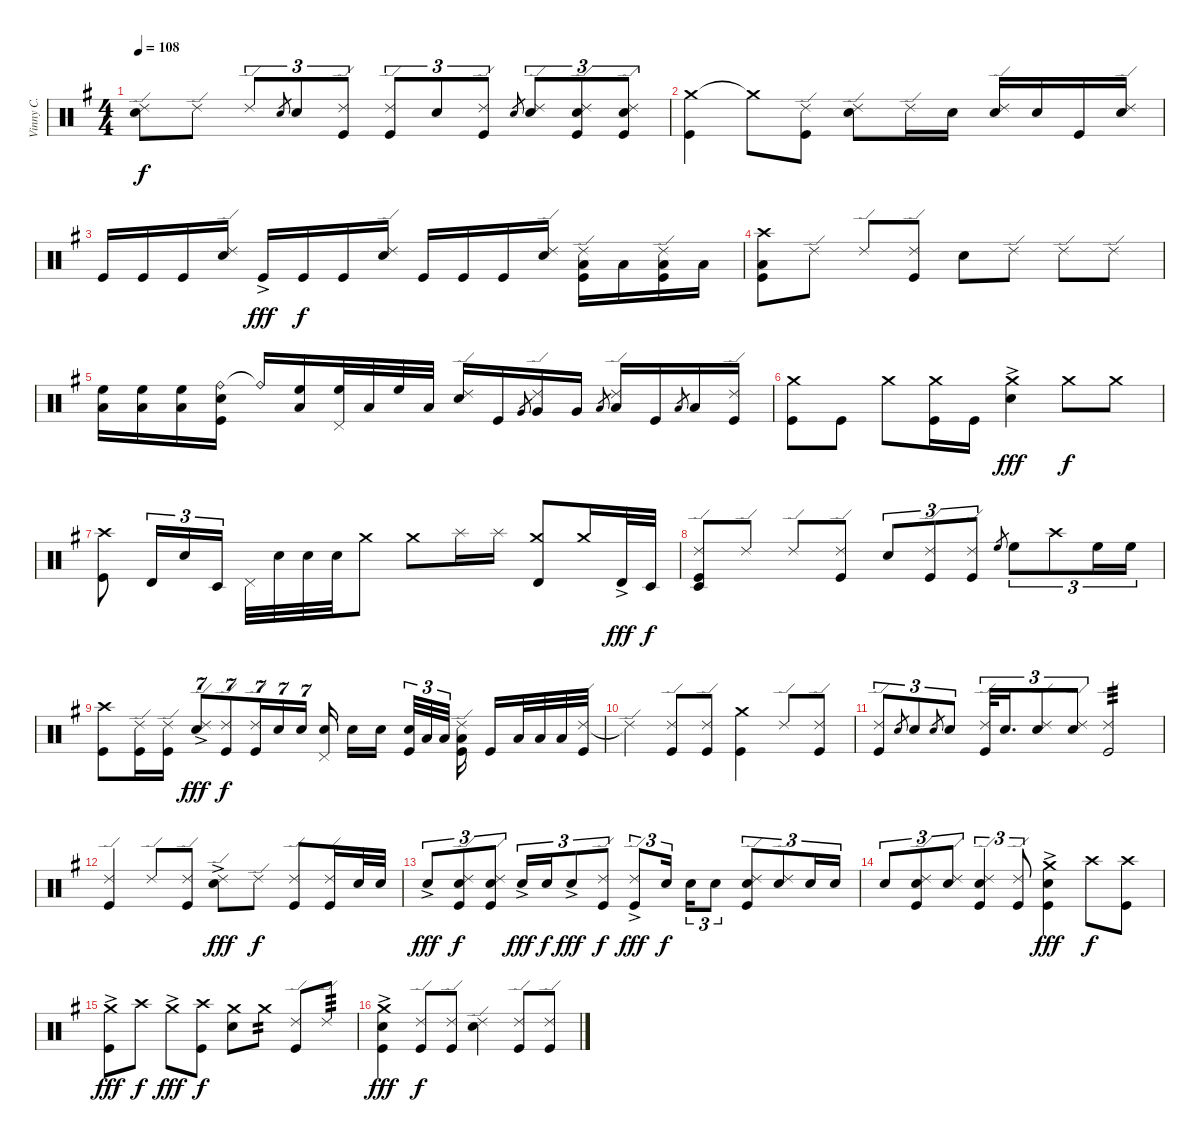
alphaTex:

\track ("Vinny C." "Vinny C.") {instrument percussion}
\staff {score}
\articulation defaults
\ts (4 4)
\tempo 108
\clef neutral
\ks g
("Ride (edge) 2" "Electric Snare (hit)").8{dy f} "Ride (edge) 2".8 "Ride (edge) 2".8{tu (3 2)} "Electric Snare (hit)".8{gr} "Electric Snare (hit)".8{tu (3 2)} ("Ride (edge) 2" "Kick (hit)").8{tu (3 2)} ("Ride (edge) 2" "Kick (hit)").8{tu (3 2)} "Electric Snare (hit)".8{tu (3 2)} ("Ride (edge) 2" "Kick (hit)").8{tu (3 2)} "Electric Snare (hit)".8{gr} ("Ride (edge) 2" "Electric Snare (hit)").8{tu (3 2)} ("Ride (edge) 2" "Electric Snare (hit)" "Kick (hit)").8{tu (3 2)} ("Ride (edge) 2" "Electric Snare (hit)" "Kick (hit)").8{tu (3 2)} |
("Crash medium (hit)" "Kick (hit)").4 "Crash medium (hit)"{t}.8 ("Ride (edge) 2" "Kick (hit)").8 ("Ride (edge) 2" "Electric Snare (hit)").8 "Ride (edge) 2".16 "Electric Snare (hit)".16 ("Ride (edge) 2" "Electric Snare (hit)").16 "Electric Snare (hit)".16 "Kick (hit)".16 ("Ride (edge) 2" "Electric Snare (hit)").16 |
"Kick (hit)".16 "Kick (hit)".16 "Kick (hit)".16 ("Ride (edge) 2" "Electric Snare (hit)").16 "Kick (hit)"{ac}.16{dy fff} "Kick (hit)".16{dy f} "Kick (hit)".16 ("Ride (edge) 2" "Electric Snare (hit)").16 "Kick (hit)".16 "Kick (hit)".16 "Kick (hit)".16 ("Ride (edge) 2" "Electric Snare (hit)").16 ("Ride (edge) 2" "Low Tom (hit)" "Kick (hit)").16 "Low Tom (hit)".16 ("Ride (edge) 2" "Low Tom (hit)" "Kick (hit)").16 "Low Tom (hit)".16 |
("Crash high (hit)" "Low Tom (hit)" "Kick (hit)").8 "Ride (edge) 2".8 "Ride (edge) 2".8 ("Ride (edge) 2" "Kick (hit)").8 "Electric Snare (hit)".8 "Ride (edge) 2".8 "Ride (edge) 2".8 "Ride (edge) 2".8 |
("High Floor Tom (hit)" "Low Tom (hit)").16 ("High Floor Tom (hit)" "Low Tom (hit)").16 ("High Floor Tom (hit)" "Low Tom (hit)").16 ("Ride (bell)" "Electric Snare (hit)" "Kick (hit)").16 "Ride (bell)"{t}.16 ("High Floor Tom (hit)" "Low Tom (hit)").16 ("Pedal Hi-Hat (hit)" "High Floor Tom (hit)").32 "Low Tom (hit)".32 "High Floor Tom (hit)".32 "Low Tom (hit)".32 ("Ride (edge) 2" "Electric Snare (hit)").16 "Kick (hit)".16 "Very Low Tom (hit)".8{gr} ("Ride (edge) 2" "Very Low Tom (hit)").16 "Very Low Tom (hit)".16 "Low Tom (hit)".8{gr} ("Ride (edge) 2" "Low Tom (hit)").16 "Kick (hit)".16 "Low Tom (hit)".8{gr} "Low Tom (hit)".16 ("Ride (edge) 2" "Kick (hit)").16 |
("Crash medium (hit)" "Kick (hit)").8 "Kick (hit)".8 "Crash medium (hit)".8 ("Crash medium (hit)" "Kick (hit)").16 "Kick (hit)".16 ("Crash medium (hit)"{ac} "Electric Snare (hit)").4{dy fff} "Crash medium (hit)".8{dy f} "Crash medium (hit)".8 |
("Crash high (hit)" "Kick (hit)").8 "Timbale high (hit)".16{tu (3 2)} "Electric Snare (hit)".16{tu (3 2)} "Timbale low (hit)".16{tu (3 2)} "Pedal Hi-Hat (hit)".32 "Electric Snare (hit)".32 "Electric Snare (hit)".32 "Electric Snare (hit)".32 "Crash medium (hit)".8 "Crash medium (hit)".8 "Splash (hit)".16 "Splash (hit)".16 ("Crash medium (hit)" "Timbale high (hit)").8 "Crash medium (hit)".16 "Timbale high (hit)"{ac}.32{dy fff} "Timbale low (hit)".32{dy f} |
("Ride (edge) 2" "Timbale low (hit)" "Kick (hit)").8 "Ride (edge) 2".8 "Ride (edge) 2".8 ("Ride (edge) 2" "Kick (hit)").8 "Electric Snare (hit)".8{tu (3 2)} ("Ride (edge) 2" "Kick (hit)").8{tu (3 2)} ("Ride (edge) 2" "Kick (hit)").8{tu (3 2)} "High Floor Tom (hit)".8{gr} "High Floor Tom (hit)".8{tu (3 2)} "Crash high (hit)".8{tu (3 2)} "High Floor Tom (hit)".16{tu (3 2)} "High Floor Tom (hit)".16{tu (3 2)} |
("Crash high (hit)" "Kick (hit)").8 ("Ride (edge) 2" "Kick (hit)").16 ("Ride (edge) 2" "Kick (hit)").16 ("Ride (edge) 2"{ac} "Electric Snare (hit)").8{tu (7 4) dy fff} ("Ride (edge) 2" "Kick (hit)").8{tu (7 4) dy f} ("Ride (edge) 2" "Kick (hit)").16{tu (7 4)} "Electric Snare (hit)".16{tu (7 4)} "Electric Snare (hit)".16{tu (7 4)} ("Pedal Hi-Hat (hit)" "Electric Snare (hit)").16 "Electric Snare (hit)".16 "Electric Snare (hit)".16 ("Electric Snare (hit)" "Kick (hit)").32{tu (3 2)} "Low Tom (hit)".32{tu (3 2)} "Low Tom (hit)".32{tu (3 2)} ("Ride (edge) 2" "Low Tom (hit)" "Kick (hit)").16 "Kick (hit)".16 "Low Tom (hit)".32 "Low Tom (hit)".32 "Low Tom (hit)".32 ("Ride (edge) 2" "Kick (hit)").32 |
"Ride (edge) 2"{t}.4 ("Ride (edge) 2" "Kick (hit)").8 ("Ride (edge) 2" "Kick (hit)").8 ("Crash medium (hit)" "Kick (hit)").4 "Ride (edge) 2".8 ("Ride (edge) 2" "Kick (hit)").8 |
("Ride (edge) 2" "Kick (hit)").8{tu (3 2)} "Electric Snare (hit)".8{gr} "Electric Snare (hit)".8{tu (3 2)} "Electric Snare (hit)".8{gr} "Electric Snare (hit)".8{tu (3 2)} ("Ride (edge) 2" "Kick (hit)").32{tu (3 2)} "Electric Snare (hit)".16{d tu (3 2)} ("Ride (edge) 2" "Electric Snare (hit)").8{tu (3 2)} ("Ride (edge) 2" "Electric Snare (hit)").8{tu (3 2)} ("Ride (edge) 2"{tr (59 32)} "Kick (hit)").2{tp 3} |
("Ride (edge) 2" "Kick (hit)").4 "Ride (edge) 2".8 ("Ride (edge) 2" "Kick (hit)").8 ("Ride (edge) 2"{ac} "Electric Snare (hit)").8{dy fff} "Ride (edge) 2".8{dy f} ("Ride (edge) 2" "Kick (hit)").8 ("Ride (edge) 2" "Kick (hit)").16 "Electric Snare (hit)".32 "Electric Snare (hit)".32 |
"Electric Snare (hit)"{ac}.8{tu (3 2) dy fff} ("Ride (edge) 2" "Electric Snare (hit)" "Kick (hit)").8{tu (3 2) dy f} ("Ride (edge) 2" "Electric Snare (hit)" "Kick (hit)").8{tu (3 2)} "Electric Snare (hit)"{ac}.16{tu (3 2) dy fff} "Electric Snare (hit)".16{tu (3 2) dy f} "Electric Snare (hit)"{ac}.8{tu (3 2) dy fff} ("Ride (edge) 2" "Kick (hit)").8{tu (3 2) dy f} ("Ride (edge) 2"{ac} "Kick (hit)").8{tu (3 2) dy fff} "Electric Snare (hit)".16{tu (3 2) dy f} "Electric Snare (hit)".16{tu (3 2)} "Electric Snare (hit)".8{tu (3 2)} ("Ride (edge) 2" "Electric Snare (hit)" "Kick (hit)").8{tu (3 2)} ("Ride (edge) 2" "Electric Snare (hit)").8{tu (3 2)} "Electric Snare (hit)".16{tu (3 2)} "Electric Snare (hit)".16{tu (3 2)} |
"Electric Snare (hit)".8{tu (3 2)} ("Ride (edge) 2" "Electric Snare (hit)" "Kick (hit)").8{tu (3 2)} ("Ride (edge) 2" "Electric Snare (hit)").8{tu (3 2)} ("Ride (edge) 2" "Electric Snare (hit)" "Kick (hit)").4{tu (3 2)} ("Ride (edge) 2" "Kick (hit)").8{tu (3 2)} ("Crash medium (hit)"{ac} "Electric Snare (hit)" "Kick (hit)").4{dy fff} "Crash high (hit)".8{dy f} ("Crash high (hit)" "Kick (hit)").8 |
("Crash medium (hit)"{ac} "Kick (hit)").8{dy fff} "Crash high (hit)".8{dy f} "Crash medium (hit)"{ac}.8{dy fff} ("Crash high (hit)" "Kick (hit)").8{dy f} ("Crash medium (hit)" "Electric Snare (hit)").8 "Crash medium (hit)".8{tp 2} ("Ride (edge) 2" "Kick (hit)").8 "Ride (edge) 2".8{tp 3} |
("Crash medium (hit)"{ac} "Electric Snare (hit)" "Kick (hit)").4{dy fff} ("Ride (edge) 2" "Kick (hit)").8{dy f} ("Ride (edge) 2" "Kick (hit)").8 ("Ride (edge) 2" "Electric Snare (hit)").4 ("Ride (edge) 2" "Kick (hit)").8 ("Ride (edge) 2" "Kick (hit)").8
